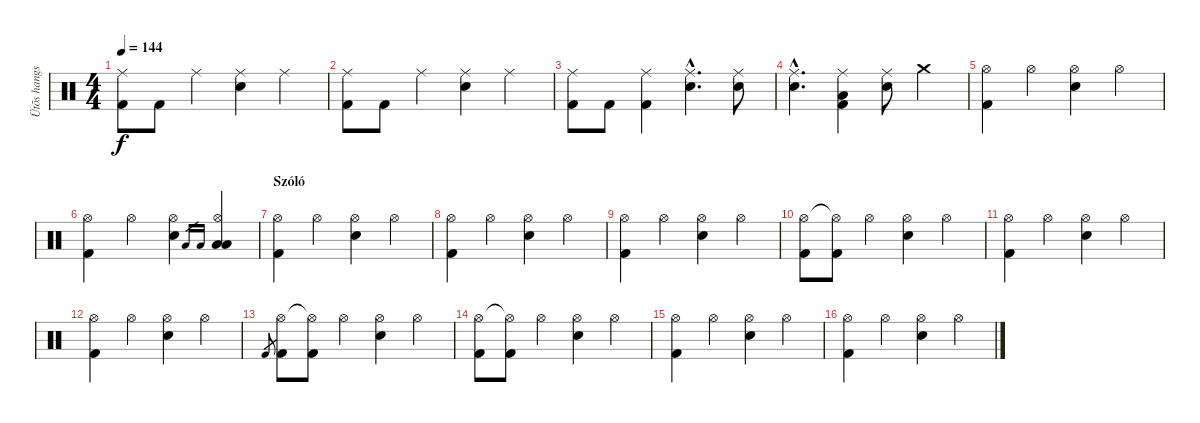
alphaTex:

\track ("Ütõs hangszer" "Ütõs hangs") {instrument percussion}
\staff {score}
\articulation defaults
\ts (4 4)
\tempo 144
\clef neutral
\ks c
("Ride (middle)" "Kick (hit) 2").8{dy f} "Kick (hit) 2".8 "Ride (middle)".4 ("Ride (middle)" "Snare (hit) 2").4 "Ride (middle)".4 |
("Ride (middle)" "Kick (hit) 2").8 "Kick (hit) 2".8 "Ride (middle)".4 ("Ride (middle)" "Snare (hit) 2").4 "Ride (middle)".4 |
("Ride (middle)" "Kick (hit) 2").8 "Kick (hit) 2".8 ("Ride (middle)" "Kick (hit) 2").4 ("Ride (middle)"{hac} "Snare (hit) 2"{hac}).4{d} ("Ride (middle)" "Snare (hit) 2").8 |
("Ride (middle)"{hac} "Snare (hit) 2"{hac}).4{d} ("Ride (middle)" "Low Floor Tom (hit)" "Kick (hit) 2").4 ("Ride (middle)" "Snare (hit) 2").8 "Crash medium (hit)".4 |
("Hi-Hat (open)" "Kick (hit) 2").4 "Hi-Hat (open)".4 ("Hi-Hat (open)" "Snare (hit) 2").4 "Hi-Hat (open)".4 |
("Hi-Hat (open)" "Kick (hit) 2").4 "Hi-Hat (open)".4 ("Hi-Hat (open)" "Snare (hit) 2").4 "Low Tom (hit)".16{gr} "Low Floor Tom (hit)".16{gr} ("Hi-Hat (open)" "Low Tom (hit)" "Low Floor Tom (hit)").4 |
\section ("" "Szóló")
("Hi-Hat (open)" "Kick (hit) 2").4 "Hi-Hat (open)".4 ("Hi-Hat (open)" "Snare (hit) 2").4 "Hi-Hat (open)".4 |
("Hi-Hat (open)" "Kick (hit) 2").4 "Hi-Hat (open)".4 ("Hi-Hat (open)" "Snare (hit) 2").4 "Hi-Hat (open)".4 |
("Hi-Hat (open)" "Kick (hit) 2").4 "Hi-Hat (open)".4 ("Hi-Hat (open)" "Snare (hit) 2").4 "Hi-Hat (open)".4 |
("Hi-Hat (open)" "Kick (hit) 2").8 ("Hi-Hat (open)"{t} "Kick (hit) 2").8 "Hi-Hat (open)".4 ("Hi-Hat (open)" "Snare (hit) 2").4 "Hi-Hat (open)".4 |
("Hi-Hat (open)" "Kick (hit) 2").4 "Hi-Hat (open)".4 ("Hi-Hat (open)" "Snare (hit) 2").4 "Hi-Hat (open)".4 |
("Hi-Hat (open)" "Kick (hit) 2").4 "Hi-Hat (open)".4 ("Hi-Hat (open)" "Snare (hit) 2").4 "Hi-Hat (open)".4 |
"Kick (hit) 2".8{gr} ("Hi-Hat (open)" "Kick (hit) 2").8 ("Hi-Hat (open)"{t} "Kick (hit) 2").8 "Hi-Hat (open)".4 ("Hi-Hat (open)" "Snare (hit) 2").4 "Hi-Hat (open)".4 |
("Hi-Hat (open)" "Kick (hit) 2").8 ("Hi-Hat (open)"{t} "Kick (hit) 2").8 "Hi-Hat (open)".4 ("Hi-Hat (open)" "Snare (hit) 2").4 "Hi-Hat (open)".4 |
("Hi-Hat (open)" "Kick (hit) 2").4 "Hi-Hat (open)".4 ("Hi-Hat (open)" "Snare (hit) 2").4 "Hi-Hat (open)".4 |
("Hi-Hat (open)" "Kick (hit) 2").4 "Hi-Hat (open)".4 ("Hi-Hat (open)" "Snare (hit) 2").4 "Hi-Hat (open)".4
